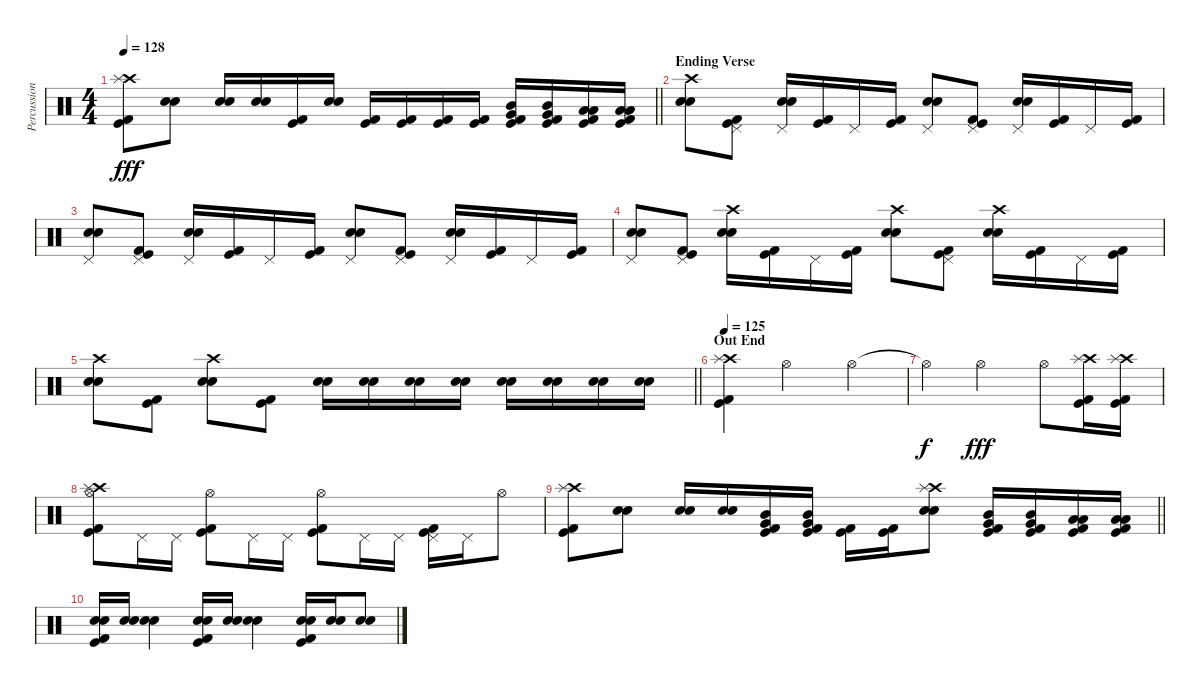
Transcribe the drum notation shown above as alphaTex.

\track ("Percussion" "Percussion") {instrument percussion}
\staff {score}
\articulation defaults
\ts (4 4)
\tempo 128
\clef neutral
\barLineRight lightlight
\ks c
("Crash high (hit)" "Splash (hit)" "Kick (hit)" "Kick (hit) 2").8{dy fff} ("Electric Snare (hit)" "Snare (hit) 2").8 ("Electric Snare (hit)" "Snare (hit) 2").16 ("Electric Snare (hit)" "Snare (hit) 2").16 ("Kick (hit)" "Kick (hit) 2").16 ("Electric Snare (hit)" "Snare (hit) 2").16 ("Kick (hit)" "Kick (hit) 2").16 ("Kick (hit)" "Kick (hit) 2").16 ("Kick (hit)" "Kick (hit) 2").16 ("Kick (hit)" "Kick (hit) 2").16 ("Very Low Tom (hit)" "Mid Tom (hit)" "Kick (hit)" "Kick (hit) 2").16 ("Very Low Tom (hit)" "Mid Tom (hit)" "Kick (hit)" "Kick (hit) 2").16 ("Low Floor Tom (hit)" "Low Tom (hit)" "Kick (hit)" "Kick (hit) 2").16 ("Low Floor Tom (hit)" "Low Tom (hit)" "Kick (hit)" "Kick (hit) 2").16 |
\section ("" "Ending Verse")
("Electric Snare (hit)" "Snare (hit) 2" "Crash high (hit)").8 ("Pedal Hi-Hat (hit)" "Kick (hit)" "Kick (hit) 2").8 ("Electric Snare (hit)" "Snare (hit) 2" "Pedal Hi-Hat (hit)").16 ("Kick (hit)" "Kick (hit) 2").16 "Pedal Hi-Hat (hit)".16 ("Kick (hit)" "Kick (hit) 2").16 ("Electric Snare (hit)" "Snare (hit) 2" "Pedal Hi-Hat (hit)").8 ("Pedal Hi-Hat (hit)" "Kick (hit)" "Kick (hit) 2").8 ("Electric Snare (hit)" "Snare (hit) 2" "Pedal Hi-Hat (hit)").16 ("Kick (hit)" "Kick (hit) 2").16 "Pedal Hi-Hat (hit)".16 ("Kick (hit)" "Kick (hit) 2").16 |
("Electric Snare (hit)" "Snare (hit) 2" "Pedal Hi-Hat (hit)").8 ("Pedal Hi-Hat (hit)" "Kick (hit)" "Kick (hit) 2").8 ("Electric Snare (hit)" "Snare (hit) 2" "Pedal Hi-Hat (hit)").16 ("Kick (hit)" "Kick (hit) 2").16 "Pedal Hi-Hat (hit)".16 ("Kick (hit)" "Kick (hit) 2").16 ("Electric Snare (hit)" "Snare (hit) 2" "Pedal Hi-Hat (hit)").8 ("Pedal Hi-Hat (hit)" "Kick (hit)" "Kick (hit) 2").8 ("Electric Snare (hit)" "Snare (hit) 2" "Pedal Hi-Hat (hit)").16 ("Kick (hit)" "Kick (hit) 2").16 "Pedal Hi-Hat (hit)".16 ("Kick (hit)" "Kick (hit) 2").16 |
("Electric Snare (hit)" "Snare (hit) 2" "Pedal Hi-Hat (hit)").8 ("Pedal Hi-Hat (hit)" "Kick (hit)" "Kick (hit) 2").8 ("Electric Snare (hit)" "Snare (hit) 2" "Crash high (hit)").16 ("Kick (hit)" "Kick (hit) 2").16 "Pedal Hi-Hat (hit)".16 ("Kick (hit)" "Kick (hit) 2").16 ("Electric Snare (hit)" "Snare (hit) 2" "Crash high (hit)").8 ("Pedal Hi-Hat (hit)" "Kick (hit)" "Kick (hit) 2").8 ("Electric Snare (hit)" "Snare (hit) 2" "Crash high (hit)").16 ("Kick (hit)" "Kick (hit) 2").16 "Pedal Hi-Hat (hit)".16 ("Kick (hit)" "Kick (hit) 2").16 |
\barLineRight lightlight
("Electric Snare (hit)" "Snare (hit) 2" "Crash high (hit)").8 ("Kick (hit)" "Kick (hit) 2").8 ("Electric Snare (hit)" "Snare (hit) 2" "Crash high (hit)").8 ("Kick (hit)" "Kick (hit) 2").8 ("Electric Snare (hit)" "Snare (hit) 2").16 ("Electric Snare (hit)" "Snare (hit) 2").16 ("Electric Snare (hit)" "Snare (hit) 2").16 ("Electric Snare (hit)" "Snare (hit) 2").16 ("Electric Snare (hit)" "Snare (hit) 2").16 ("Electric Snare (hit)" "Snare (hit) 2").16 ("Electric Snare (hit)" "Snare (hit) 2").16 ("Electric Snare (hit)" "Snare (hit) 2").16 |
\section ("" "Out End")
\tempo 125
("Crash high (hit)" "Splash (hit)" "Kick (hit)" "Kick (hit) 2").4 "Hi-Hat (open)".2 "Hi-Hat (open)".4 |
"Hi-Hat (open)"{t}.4{dy f} "Hi-Hat (open)".2{dy fff} "Hi-Hat (open)".8 ("Crash high (hit)" "Splash (hit)" "Kick (hit)" "Kick (hit) 2").16 ("Crash high (hit)" "Splash (hit)" "Kick (hit)" "Kick (hit) 2").16 |
("Crash high (hit)" "Splash (hit)" "Hi-Hat (open)" "Kick (hit)" "Kick (hit) 2").8 "Pedal Hi-Hat (hit)".16 "Pedal Hi-Hat (hit)".16 ("Hi-Hat (open)" "Kick (hit)" "Kick (hit) 2").8 "Pedal Hi-Hat (hit)".16 "Pedal Hi-Hat (hit)".16 ("Hi-Hat (open)" "Kick (hit)" "Kick (hit) 2").8 "Pedal Hi-Hat (hit)".16 "Pedal Hi-Hat (hit)".16 ("Pedal Hi-Hat (hit)" "Kick (hit)" "Kick (hit) 2").16 "Pedal Hi-Hat (hit)".16 "Hi-Hat (open)".8 |
\barLineRight lightlight
("Crash high (hit)" "Splash (hit)" "Kick (hit)" "Kick (hit) 2").8 ("Electric Snare (hit)" "Snare (hit) 2").8 ("Electric Snare (hit)" "Snare (hit) 2").16 ("Electric Snare (hit)" "Snare (hit) 2").16 ("Mid Tom (hit)" "Very Low Tom (hit)" "Kick (hit)" "Kick (hit) 2").16 ("Mid Tom (hit)" "Very Low Tom (hit)" "Kick (hit)" "Kick (hit) 2").16 ("Kick (hit)" "Kick (hit) 2").16 ("Kick (hit)" "Kick (hit) 2").16 ("Electric Snare (hit)" "Snare (hit) 2" "Crash high (hit)" "Splash (hit)").8 ("Very Low Tom (hit)" "Mid Tom (hit)" "Kick (hit)" "Kick (hit) 2").16 ("Very Low Tom (hit)" "Mid Tom (hit)" "Kick (hit)" "Kick (hit) 2").16 ("Low Floor Tom (hit)" "Low Tom (hit)" "Kick (hit)" "Kick (hit) 2").16 ("Low Floor Tom (hit)" "Low Tom (hit)" "Kick (hit)" "Kick (hit) 2").16 |
("Electric Snare (hit)" "Snare (hit) 2" "Kick (hit)" "Kick (hit) 2").16 ("Electric Snare (hit)" "Snare (hit) 2").16 ("Electric Snare (hit)" "Snare (hit) 2").4 ("Electric Snare (hit)" "Snare (hit) 2" "Kick (hit)" "Kick (hit) 2").16 ("Electric Snare (hit)" "Snare (hit) 2").16 ("Electric Snare (hit)" "Snare (hit) 2").4 ("Electric Snare (hit)" "Snare (hit) 2" "Kick (hit)" "Kick (hit) 2").16 ("Electric Snare (hit)" "Snare (hit) 2").16 ("Electric Snare (hit)" "Snare (hit) 2").8
